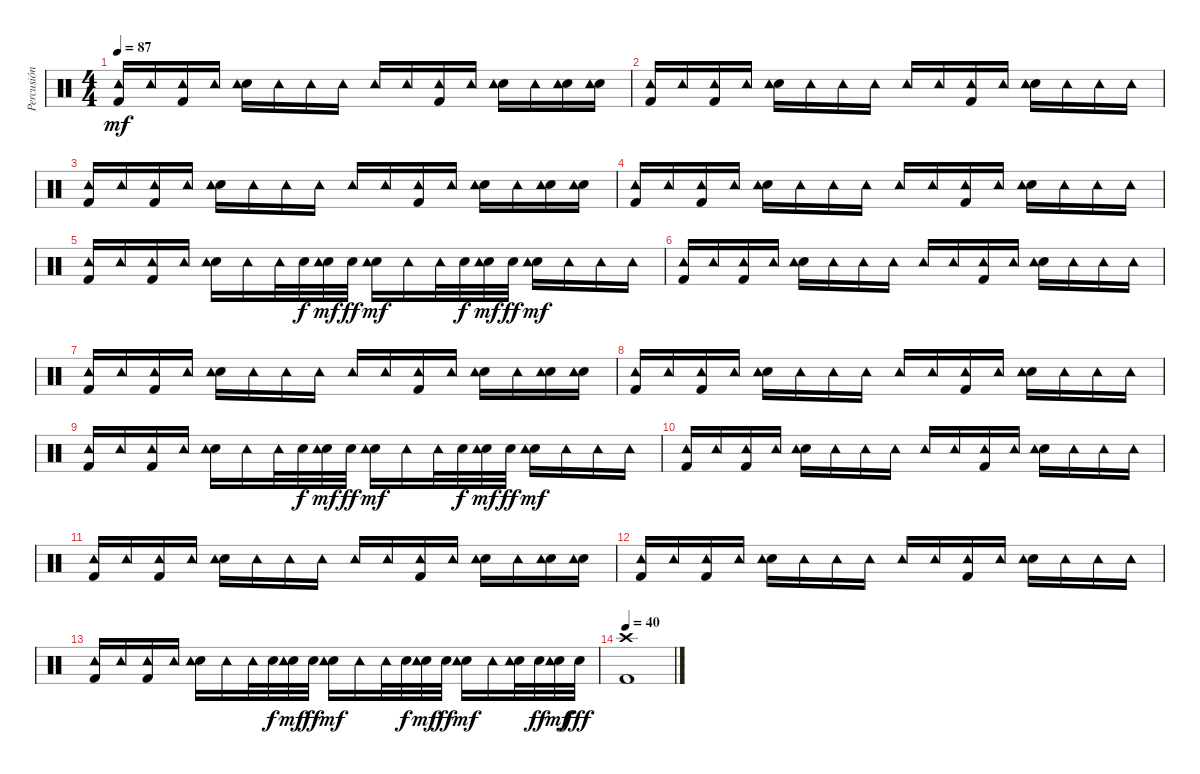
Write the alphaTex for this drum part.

\track ("Percusión" "Percusión") {instrument percussion}
\staff {score}
\articulation defaults
\ts (4 4)
\tempo 87
\clef neutral
\ks c
("Kick (hit) 2" "Tambourine (hit)").16{dy mf} "Tambourine (hit)".16 ("Kick (hit) 2" "Tambourine (hit)").16 "Tambourine (hit)".16 ("Snare (hit) 2" "Tambourine (hit)").16 "Tambourine (hit)".16 "Tambourine (hit)".16 "Tambourine (hit)".16 "Tambourine (hit)".16 "Tambourine (hit)".16 ("Kick (hit) 2" "Tambourine (hit)").16 "Tambourine (hit)".16 ("Snare (hit) 2" "Tambourine (hit)").16 "Tambourine (hit)".16 ("Snare (hit) 2" "Tambourine (hit)").16 ("Snare (hit) 2" "Tambourine (hit)").16 |
("Kick (hit) 2" "Tambourine (hit)").16 "Tambourine (hit)".16 ("Kick (hit) 2" "Tambourine (hit)").16 "Tambourine (hit)".16 ("Snare (hit) 2" "Tambourine (hit)").16 "Tambourine (hit)".16 "Tambourine (hit)".16 "Tambourine (hit)".16 "Tambourine (hit)".16 "Tambourine (hit)".16 ("Kick (hit) 2" "Tambourine (hit)").16 "Tambourine (hit)".16 ("Snare (hit) 2" "Tambourine (hit)").16 "Tambourine (hit)".16 "Tambourine (hit)".16 "Tambourine (hit)".16 |
("Kick (hit) 2" "Tambourine (hit)").16 "Tambourine (hit)".16 ("Kick (hit) 2" "Tambourine (hit)").16 "Tambourine (hit)".16 ("Snare (hit) 2" "Tambourine (hit)").16 "Tambourine (hit)".16 "Tambourine (hit)".16 "Tambourine (hit)".16 "Tambourine (hit)".16 "Tambourine (hit)".16 ("Kick (hit) 2" "Tambourine (hit)").16 "Tambourine (hit)".16 ("Snare (hit) 2" "Tambourine (hit)").16 "Tambourine (hit)".16 ("Snare (hit) 2" "Tambourine (hit)").16 ("Snare (hit) 2" "Tambourine (hit)").16 |
("Kick (hit) 2" "Tambourine (hit)").16 "Tambourine (hit)".16 ("Kick (hit) 2" "Tambourine (hit)").16 "Tambourine (hit)".16 ("Snare (hit) 2" "Tambourine (hit)").16 "Tambourine (hit)".16 "Tambourine (hit)".16 "Tambourine (hit)".16 "Tambourine (hit)".16 "Tambourine (hit)".16 ("Kick (hit) 2" "Tambourine (hit)").16 "Tambourine (hit)".16 ("Snare (hit) 2" "Tambourine (hit)").16 "Tambourine (hit)".16 "Tambourine (hit)".16 "Tambourine (hit)".16 |
("Kick (hit) 2" "Tambourine (hit)").16 "Tambourine (hit)".16 ("Kick (hit) 2" "Tambourine (hit)").16 "Tambourine (hit)".16 ("Snare (hit) 2" "Tambourine (hit)").16 "Tambourine (hit)".16 "Tambourine (hit)".32 "Snare (hit) 2".32{dy f} ("Snare (hit) 2" "Tambourine (hit)").32{dy mf} "Snare (hit) 2".32{dy ff} ("Snare (hit) 2" "Tambourine (hit)").16{dy mf} "Tambourine (hit)".16 "Tambourine (hit)".32 "Snare (hit) 2".32{dy f} ("Snare (hit) 2" "Tambourine (hit)").32{dy mf} "Snare (hit) 2".32{dy ff} ("Snare (hit) 2" "Tambourine (hit)").16{dy mf} "Tambourine (hit)".16 "Tambourine (hit)".16 "Tambourine (hit)".16 |
("Kick (hit) 2" "Tambourine (hit)").16 "Tambourine (hit)".16 ("Kick (hit) 2" "Tambourine (hit)").16 "Tambourine (hit)".16 ("Snare (hit) 2" "Tambourine (hit)").16 "Tambourine (hit)".16 "Tambourine (hit)".16 "Tambourine (hit)".16 "Tambourine (hit)".16 "Tambourine (hit)".16 ("Kick (hit) 2" "Tambourine (hit)").16 "Tambourine (hit)".16 ("Snare (hit) 2" "Tambourine (hit)").16 "Tambourine (hit)".16 "Tambourine (hit)".16 "Tambourine (hit)".16 |
("Kick (hit) 2" "Tambourine (hit)").16 "Tambourine (hit)".16 ("Kick (hit) 2" "Tambourine (hit)").16 "Tambourine (hit)".16 ("Snare (hit) 2" "Tambourine (hit)").16 "Tambourine (hit)".16 "Tambourine (hit)".16 "Tambourine (hit)".16 "Tambourine (hit)".16 "Tambourine (hit)".16 ("Kick (hit) 2" "Tambourine (hit)").16 "Tambourine (hit)".16 ("Snare (hit) 2" "Tambourine (hit)").16 "Tambourine (hit)".16 ("Snare (hit) 2" "Tambourine (hit)").16 ("Snare (hit) 2" "Tambourine (hit)").16 |
("Kick (hit) 2" "Tambourine (hit)").16 "Tambourine (hit)".16 ("Kick (hit) 2" "Tambourine (hit)").16 "Tambourine (hit)".16 ("Snare (hit) 2" "Tambourine (hit)").16 "Tambourine (hit)".16 "Tambourine (hit)".16 "Tambourine (hit)".16 "Tambourine (hit)".16 "Tambourine (hit)".16 ("Kick (hit) 2" "Tambourine (hit)").16 "Tambourine (hit)".16 ("Snare (hit) 2" "Tambourine (hit)").16 "Tambourine (hit)".16 "Tambourine (hit)".16 "Tambourine (hit)".16 |
("Kick (hit) 2" "Tambourine (hit)").16 "Tambourine (hit)".16 ("Kick (hit) 2" "Tambourine (hit)").16 "Tambourine (hit)".16 ("Snare (hit) 2" "Tambourine (hit)").16 "Tambourine (hit)".16 "Tambourine (hit)".32 "Snare (hit) 2".32{dy f} ("Snare (hit) 2" "Tambourine (hit)").32{dy mf} "Snare (hit) 2".32{dy ff} ("Snare (hit) 2" "Tambourine (hit)").16{dy mf} "Tambourine (hit)".16 "Tambourine (hit)".32 "Snare (hit) 2".32{dy f} ("Snare (hit) 2" "Tambourine (hit)").32{dy mf} "Snare (hit) 2".32{dy ff} ("Snare (hit) 2" "Tambourine (hit)").16{dy mf} "Tambourine (hit)".16 "Tambourine (hit)".16 "Tambourine (hit)".16 |
("Kick (hit) 2" "Tambourine (hit)").16 "Tambourine (hit)".16 ("Kick (hit) 2" "Tambourine (hit)").16 "Tambourine (hit)".16 ("Snare (hit) 2" "Tambourine (hit)").16 "Tambourine (hit)".16 "Tambourine (hit)".16 "Tambourine (hit)".16 "Tambourine (hit)".16 "Tambourine (hit)".16 ("Kick (hit) 2" "Tambourine (hit)").16 "Tambourine (hit)".16 ("Snare (hit) 2" "Tambourine (hit)").16 "Tambourine (hit)".16 "Tambourine (hit)".16 "Tambourine (hit)".16 |
("Kick (hit) 2" "Tambourine (hit)").16 "Tambourine (hit)".16 ("Kick (hit) 2" "Tambourine (hit)").16 "Tambourine (hit)".16 ("Snare (hit) 2" "Tambourine (hit)").16 "Tambourine (hit)".16 "Tambourine (hit)".16 "Tambourine (hit)".16 "Tambourine (hit)".16 "Tambourine (hit)".16 ("Kick (hit) 2" "Tambourine (hit)").16 "Tambourine (hit)".16 ("Snare (hit) 2" "Tambourine (hit)").16 "Tambourine (hit)".16 ("Snare (hit) 2" "Tambourine (hit)").16 ("Snare (hit) 2" "Tambourine (hit)").16 |
("Kick (hit) 2" "Tambourine (hit)").16 "Tambourine (hit)".16 ("Kick (hit) 2" "Tambourine (hit)").16 "Tambourine (hit)".16 ("Snare (hit) 2" "Tambourine (hit)").16 "Tambourine (hit)".16 "Tambourine (hit)".16 "Tambourine (hit)".16 "Tambourine (hit)".16 "Tambourine (hit)".16 ("Kick (hit) 2" "Tambourine (hit)").16 "Tambourine (hit)".16 ("Snare (hit) 2" "Tambourine (hit)").16 "Tambourine (hit)".16 "Tambourine (hit)".16 "Tambourine (hit)".16 |
("Kick (hit) 2" "Tambourine (hit)").16 "Tambourine (hit)".16 ("Kick (hit) 2" "Tambourine (hit)").16 "Tambourine (hit)".16 ("Snare (hit) 2" "Tambourine (hit)").16 "Tambourine (hit)".16 "Tambourine (hit)".32 "Snare (hit) 2".32{dy f} ("Snare (hit) 2" "Tambourine (hit)").32{dy mf} "Snare (hit) 2".32{dy ff} ("Snare (hit) 2" "Tambourine (hit)").16{dy mf} "Tambourine (hit)".16 "Tambourine (hit)".32 "Snare (hit) 2".32{dy f} ("Snare (hit) 2" "Tambourine (hit)").32{dy mf} "Snare (hit) 2".32{dy ff} ("Snare (hit) 2" "Tambourine (hit)").16{dy mf} "Tambourine (hit)".16 ("Snare (hit) 2" "Tambourine (hit)").32 "Snare (hit) 2".32{dy ff} ("Snare (hit) 2" "Tambourine (hit)").32{dy mf} "Snare (hit) 2".32{dy fff} |
\tempo 40
("Crash high (hit)" "Kick (hit) 2").1
